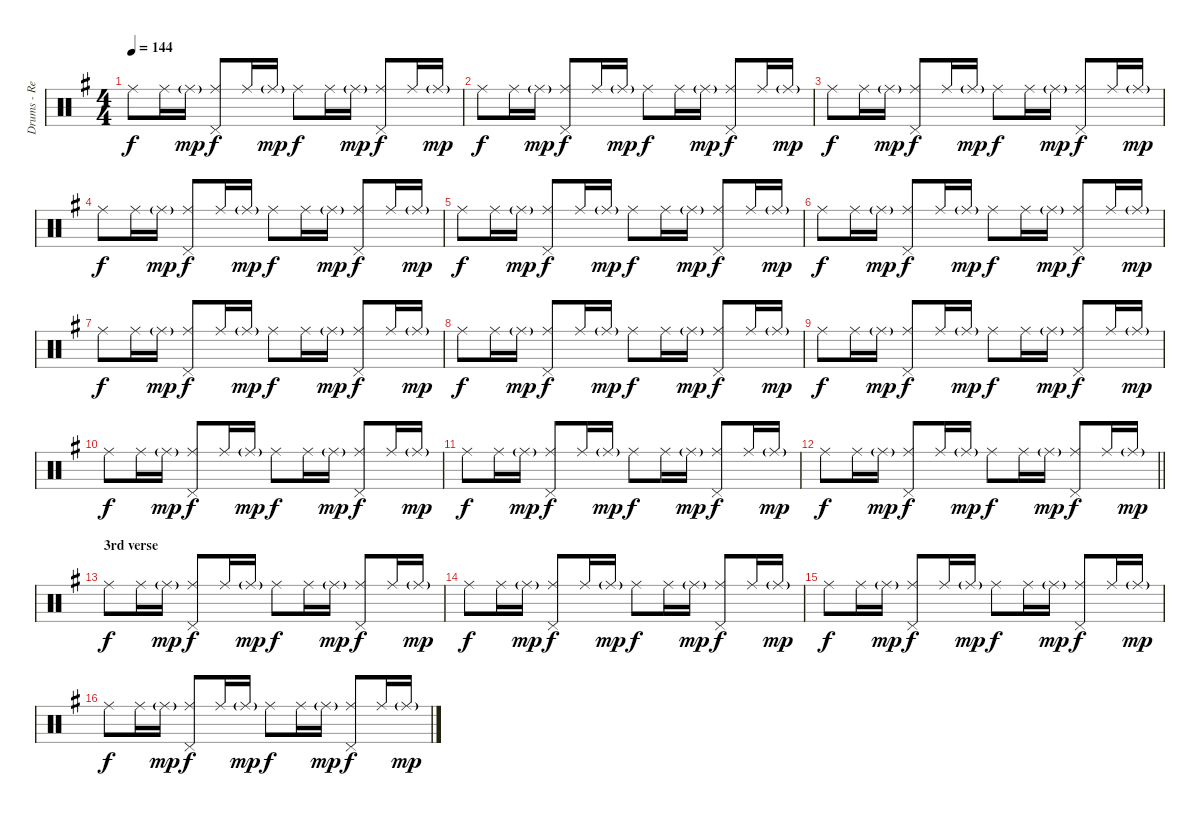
\track ("Drums - Reni" "Drums - Re") {instrument percussion}
\staff {score}
\articulation defaults
\ts (4 4)
\tempo 144
\clef neutral
\ks g "Ride (middle)".8{dy f} "Ride (middle)".16 "Ride (middle)"{g}.16{dy mp}
("Ride (middle)" "Pedal Hi-Hat (hit)").8{dy f} "Ride (middle)".16 "Ride (middle)"{g}.16{dy mp} "Ride (middle)".8{dy f} "Ride (middle)".16 "Ride (middle)"{g}.16{dy mp} ("Ride (middle)" "Pedal Hi-Hat (hit)").8{dy f} "Ride (middle)".16 "Ride (middle)"{g}.16{dy mp} |
"Ride (middle)".8{dy f} "Ride (middle)".16 "Ride (middle)"{g}.16{dy mp} ("Ride (middle)" "Pedal Hi-Hat (hit)").8{dy f} "Ride (middle)".16 "Ride (middle)"{g}.16{dy mp} "Ride (middle)".8{dy f} "Ride (middle)".16 "Ride (middle)"{g}.16{dy mp} ("Ride (middle)" "Pedal Hi-Hat (hit)").8{dy f} "Ride (middle)".16 "Ride (middle)"{g}.16{dy mp} |
"Ride (middle)".8{dy f} "Ride (middle)".16 "Ride (middle)"{g}.16{dy mp} ("Ride (middle)" "Pedal Hi-Hat (hit)").8{dy f} "Ride (middle)".16 "Ride (middle)"{g}.16{dy mp} "Ride (middle)".8{dy f} "Ride (middle)".16 "Ride (middle)"{g}.16{dy mp} ("Ride (middle)" "Pedal Hi-Hat (hit)").8{dy f} "Ride (middle)".16 "Ride (middle)"{g}.16{dy mp} |
"Ride (middle)".8{dy f} "Ride (middle)".16 "Ride (middle)"{g}.16{dy mp} ("Ride (middle)" "Pedal Hi-Hat (hit)").8{dy f} "Ride (middle)".16 "Ride (middle)"{g}.16{dy mp} "Ride (middle)".8{dy f} "Ride (middle)".16 "Ride (middle)"{g}.16{dy mp} ("Ride (middle)" "Pedal Hi-Hat (hit)").8{dy f} "Ride (middle)".16 "Ride (middle)"{g}.16{dy mp} |
"Ride (middle)".8{dy f} "Ride (middle)".16 "Ride (middle)"{g}.16{dy mp} ("Ride (middle)" "Pedal Hi-Hat (hit)").8{dy f} "Ride (middle)".16 "Ride (middle)"{g}.16{dy mp} "Ride (middle)".8{dy f} "Ride (middle)".16 "Ride (middle)"{g}.16{dy mp} ("Ride (middle)" "Pedal Hi-Hat (hit)").8{dy f} "Ride (middle)".16 "Ride (middle)"{g}.16{dy mp} |
"Ride (middle)".8{dy f} "Ride (middle)".16 "Ride (middle)"{g}.16{dy mp} ("Ride (middle)" "Pedal Hi-Hat (hit)").8{dy f} "Ride (middle)".16 "Ride (middle)"{g}.16{dy mp} "Ride (middle)".8{dy f} "Ride (middle)".16 "Ride (middle)"{g}.16{dy mp} ("Ride (middle)" "Pedal Hi-Hat (hit)").8{dy f} "Ride (middle)".16 "Ride (middle)"{g}.16{dy mp} |
"Ride (middle)".8{dy f} "Ride (middle)".16 "Ride (middle)"{g}.16{dy mp} ("Ride (middle)" "Pedal Hi-Hat (hit)").8{dy f} "Ride (middle)".16 "Ride (middle)"{g}.16{dy mp} "Ride (middle)".8{dy f} "Ride (middle)".16 "Ride (middle)"{g}.16{dy mp} ("Ride (middle)" "Pedal Hi-Hat (hit)").8{dy f} "Ride (middle)".16 "Ride (middle)"{g}.16{dy mp} |
"Ride (middle)".8{dy f} "Ride (middle)".16 "Ride (middle)"{g}.16{dy mp} ("Ride (middle)" "Pedal Hi-Hat (hit)").8{dy f} "Ride (middle)".16 "Ride (middle)"{g}.16{dy mp} "Ride (middle)".8{dy f} "Ride (middle)".16 "Ride (middle)"{g}.16{dy mp} ("Ride (middle)" "Pedal Hi-Hat (hit)").8{dy f} "Ride (middle)".16 "Ride (middle)"{g}.16{dy mp} |
"Ride (middle)".8{dy f} "Ride (middle)".16 "Ride (middle)"{g}.16{dy mp} ("Ride (middle)" "Pedal Hi-Hat (hit)").8{dy f} "Ride (middle)".16 "Ride (middle)"{g}.16{dy mp} "Ride (middle)".8{dy f} "Ride (middle)".16 "Ride (middle)"{g}.16{dy mp} ("Ride (middle)" "Pedal Hi-Hat (hit)").8{dy f} "Ride (middle)".16 "Ride (middle)"{g}.16{dy mp} |
"Ride (middle)".8{dy f} "Ride (middle)".16 "Ride (middle)"{g}.16{dy mp} ("Ride (middle)" "Pedal Hi-Hat (hit)").8{dy f} "Ride (middle)".16 "Ride (middle)"{g}.16{dy mp} "Ride (middle)".8{dy f} "Ride (middle)".16 "Ride (middle)"{g}.16{dy mp} ("Ride (middle)" "Pedal Hi-Hat (hit)").8{dy f} "Ride (middle)".16 "Ride (middle)"{g}.16{dy mp} |
"Ride (middle)".8{dy f} "Ride (middle)".16 "Ride (middle)"{g}.16{dy mp} ("Ride (middle)" "Pedal Hi-Hat (hit)").8{dy f} "Ride (middle)".16 "Ride (middle)"{g}.16{dy mp} "Ride (middle)".8{dy f} "Ride (middle)".16 "Ride (middle)"{g}.16{dy mp} ("Ride (middle)" "Pedal Hi-Hat (hit)").8{dy f} "Ride (middle)".16 "Ride (middle)"{g}.16{dy mp} |
\barLineRight lightlight "Ride (middle)".8{dy f} "Ride (middle)".16 "Ride (middle)"{g}.16{dy mp}
("Ride (middle)" "Pedal Hi-Hat (hit)").8{dy f} "Ride (middle)".16 "Ride (middle)"{g}.16{dy mp} "Ride (middle)".8{dy f} "Ride (middle)".16 "Ride (middle)"{g}.16{dy mp} ("Ride (middle)" "Pedal Hi-Hat (hit)").8{dy f} "Ride (middle)".16 "Ride (middle)"{g}.16{dy mp} |
\section ("" "3rd verse")
"Ride (middle)".8{dy f} "Ride (middle)".16 "Ride (middle)"{g}.16{dy mp} ("Ride (middle)" "Pedal Hi-Hat (hit)").8{dy f} "Ride (middle)".16 "Ride (middle)"{g}.16{dy mp} "Ride (middle)".8{dy f} "Ride (middle)".16 "Ride (middle)"{g}.16{dy mp} ("Ride (middle)" "Pedal Hi-Hat (hit)").8{dy f} "Ride (middle)".16 "Ride (middle)"{g}.16{dy mp} |
"Ride (middle)".8{dy f} "Ride (middle)".16 "Ride (middle)"{g}.16{dy mp} ("Ride (middle)" "Pedal Hi-Hat (hit)").8{dy f} "Ride (middle)".16 "Ride (middle)"{g}.16{dy mp} "Ride (middle)".8{dy f} "Ride (middle)".16 "Ride (middle)"{g}.16{dy mp} ("Ride (middle)" "Pedal Hi-Hat (hit)").8{dy f} "Ride (middle)".16 "Ride (middle)"{g}.16{dy mp} |
"Ride (middle)".8{dy f} "Ride (middle)".16 "Ride (middle)"{g}.16{dy mp} ("Ride (middle)" "Pedal Hi-Hat (hit)").8{dy f} "Ride (middle)".16 "Ride (middle)"{g}.16{dy mp} "Ride (middle)".8{dy f} "Ride (middle)".16 "Ride (middle)"{g}.16{dy mp} ("Ride (middle)" "Pedal Hi-Hat (hit)").8{dy f} "Ride (middle)".16 "Ride (middle)"{g}.16{dy mp} |
"Ride (middle)".8{dy f} "Ride (middle)".16 "Ride (middle)"{g}.16{dy mp} ("Ride (middle)" "Pedal Hi-Hat (hit)").8{dy f} "Ride (middle)".16 "Ride (middle)"{g}.16{dy mp} "Ride (middle)".8{dy f} "Ride (middle)".16 "Ride (middle)"{g}.16{dy mp} ("Ride (middle)" "Pedal Hi-Hat (hit)").8{dy f} "Ride (middle)".16 "Ride (middle)"{g}.16{dy mp}
